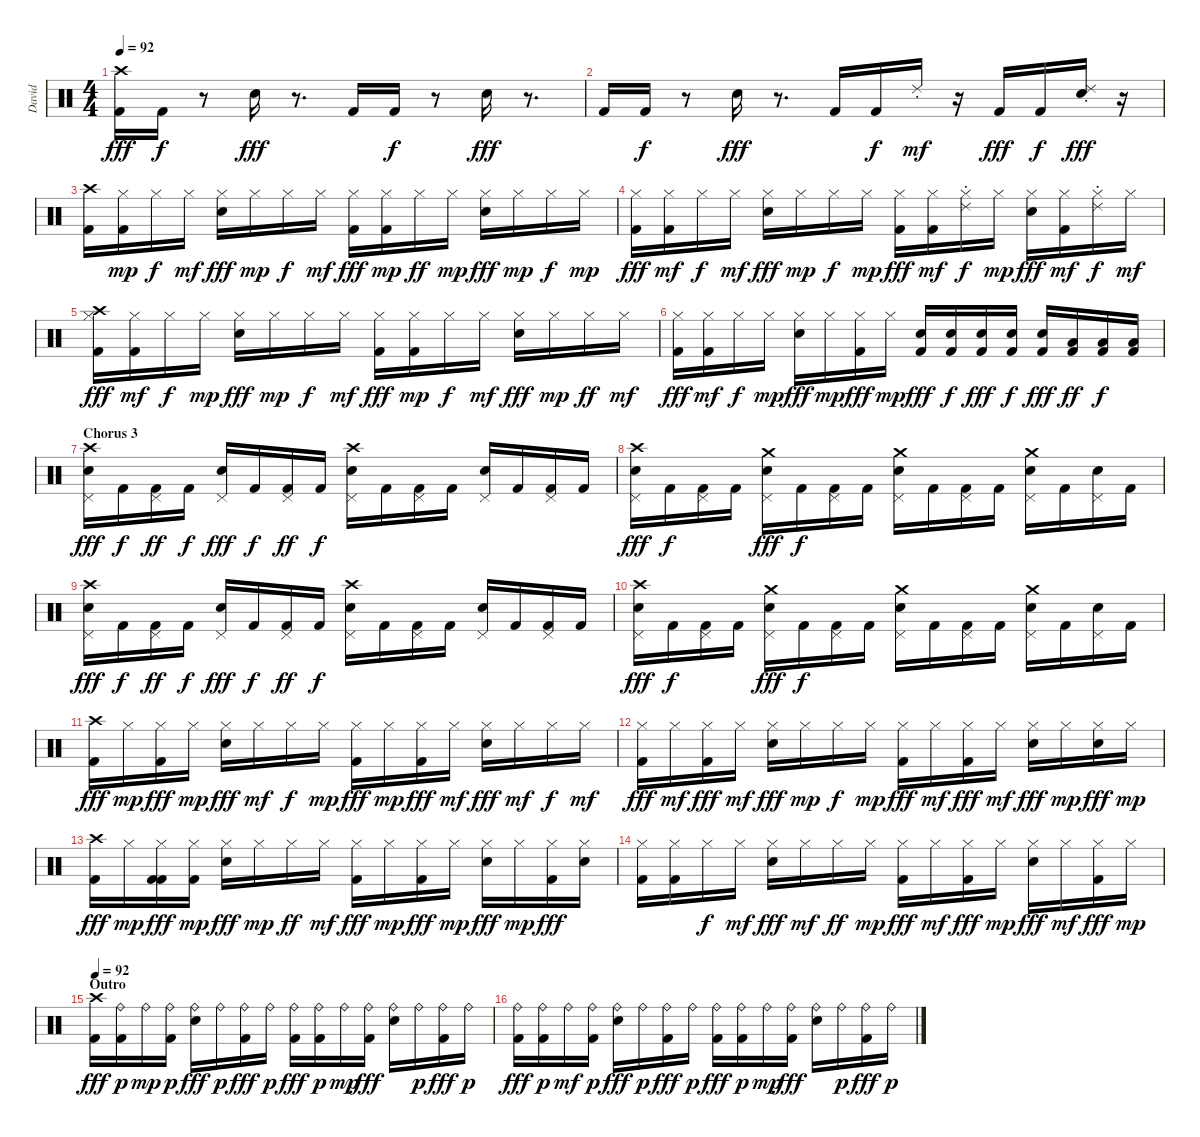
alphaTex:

\track ("David" "David") {instrument percussion}
\staff {score}
\articulation defaults
\ts (4 4)
\tempo 92
\clef neutral
\ks c
("Crash high (hit)" "Kick (hit) 2").16{dy fff} "Kick (hit) 2".16{dy f} r.8 "Electric Snare (hit)".16{dy fff} r.8{d} "Kick (hit) 2".16 "Kick (hit) 2".16{dy f} r.8 "Electric Snare (hit)".16{dy fff} r.8{d} |
"Kick (hit) 2".16 "Kick (hit) 2".16{dy f} r.8 "Electric Snare (hit)".16{dy fff} r.8{d} "Kick (hit) 2".16 "Kick (hit) 2".16{dy f} "Ride (choke) 2".16{dy mf} r.16 "Kick (hit) 2".16{dy fff} "Kick (hit) 2".16{dy f} ("Ride (choke) 2" "Electric Snare (hit)").16{dy fff} r.16 |
("Crash high (hit)" "Kick (hit) 2").16 ("Hi-Hat (closed)" "Kick (hit) 2").16{dy mp} "Hi-Hat (closed)".16{dy f} "Hi-Hat (closed)".16{dy mf} ("Hi-Hat (closed)" "Electric Snare (hit)").16{dy fff} "Hi-Hat (closed)".16{dy mp} "Hi-Hat (closed)".16{dy f} "Hi-Hat (closed)".16{dy mf} ("Hi-Hat (closed)" "Kick (hit) 2").16{dy fff} ("Hi-Hat (closed)" "Kick (hit) 2").16{dy mp} "Hi-Hat (closed)".16{dy ff} "Hi-Hat (closed)".16{dy mp} ("Hi-Hat (closed)" "Electric Snare (hit)").16{dy fff} "Hi-Hat (closed)".16{dy mp} "Hi-Hat (closed)".16{dy f} "Hi-Hat (closed)".16{dy mp} |
("Hi-Hat (closed)" "Kick (hit) 2").16{dy fff} ("Hi-Hat (closed)" "Kick (hit) 2").16{dy mf} "Hi-Hat (closed)".16{dy f} "Hi-Hat (closed)".16{dy mf} ("Hi-Hat (closed)" "Electric Snare (hit)").16{dy fff} "Hi-Hat (closed)".16{dy mp} "Hi-Hat (closed)".16{dy f} "Hi-Hat (closed)".16{dy mp} ("Hi-Hat (closed)" "Kick (hit) 2").16{dy fff} ("Hi-Hat (closed)" "Kick (hit) 2").16{dy mf} ("Ride (choke) 2" "Hi-Hat (closed)").16{dy f} "Hi-Hat (closed)".16{dy mp} ("Hi-Hat (closed)" "Electric Snare (hit)").16{dy fff} ("Hi-Hat (closed)" "Kick (hit) 2").16{dy mf} ("Ride (choke) 2" "Hi-Hat (closed)").16{dy f} "Hi-Hat (closed)".16{dy mf} |
("Hi-Hat (closed)" "Crash high (hit)" "Kick (hit) 2").16{dy fff} ("Hi-Hat (closed)" "Kick (hit) 2").16{dy mf} "Hi-Hat (closed)".16{dy f} "Hi-Hat (closed)".16{dy mp} ("Hi-Hat (closed)" "Electric Snare (hit)").16{dy fff} "Hi-Hat (closed)".16{dy mp} "Hi-Hat (closed)".16{dy f} "Hi-Hat (closed)".16{dy mf} ("Hi-Hat (closed)" "Kick (hit) 2").16{dy fff} ("Hi-Hat (closed)" "Kick (hit) 2").16{dy mp} "Hi-Hat (closed)".16{dy f} "Hi-Hat (closed)".16{dy mf} ("Hi-Hat (closed)" "Electric Snare (hit)").16{dy fff} "Hi-Hat (closed)".16{dy mp} "Hi-Hat (closed)".16{dy ff} "Hi-Hat (closed)".16{dy mf} |
("Hi-Hat (closed)" "Kick (hit) 2").16{dy fff} ("Hi-Hat (closed)" "Kick (hit) 2").16{dy mf} "Hi-Hat (closed)".16{dy f} "Hi-Hat (closed)".16{dy mp} ("Hi-Hat (closed)" "Electric Snare (hit)").16{dy fff} "Hi-Hat (closed)".16{dy mp} ("Hi-Hat (closed)" "Kick (hit) 2").16{dy fff} "Hi-Hat (closed)".16{dy mp} ("Electric Snare (hit)" "Kick (hit) 2").16{dy fff} ("Electric Snare (hit)" "Kick (hit) 2").16{dy f} ("Electric Snare (hit)" "Kick (hit) 2").16{dy fff} ("Electric Snare (hit)" "Kick (hit) 2").16{dy f} ("Electric Snare (hit)" "Kick (hit) 2").16{dy fff} ("Low Tom (hit)" "Kick (hit) 2").16{dy ff} ("Low Tom (hit)" "Kick (hit) 2").16{dy f} ("Low Floor Tom (hit)" "Kick (hit) 2").16 |
\section ("" "Chorus 3")
("Pedal Hi-Hat (hit)" "Crash high (hit)" "Electric Snare (hit)").16{dy fff} "Kick (hit) 2".16{dy f} ("Pedal Hi-Hat (hit)" "Kick (hit) 2").16{dy ff} "Kick (hit) 2".16{dy f} ("Pedal Hi-Hat (hit)" "Electric Snare (hit)").16{dy fff} "Kick (hit) 2".16{dy f} ("Pedal Hi-Hat (hit)" "Kick (hit) 2").16{dy ff} "Kick (hit) 2".16{dy f} ("Pedal Hi-Hat (hit)" "Crash high (hit)" "Electric Snare (hit)").16 "Kick (hit) 2".16 ("Pedal Hi-Hat (hit)" "Kick (hit) 2").16 "Kick (hit) 2".16 ("Pedal Hi-Hat (hit)" "Electric Snare (hit)").16 "Kick (hit) 2".16 ("Pedal Hi-Hat (hit)" "Kick (hit) 2").16 "Kick (hit) 2".16 |
("Pedal Hi-Hat (hit)" "Crash high (hit)" "Electric Snare (hit)").16{dy fff} "Kick (hit) 2".16{dy f} ("Pedal Hi-Hat (hit)" "Kick (hit) 2").16 "Kick (hit) 2".16 ("Pedal Hi-Hat (hit)" "Crash medium (hit)" "Electric Snare (hit)").16{dy fff} "Kick (hit) 2".16{dy f} ("Pedal Hi-Hat (hit)" "Kick (hit) 2").16 "Kick (hit) 2".16 ("Pedal Hi-Hat (hit)" "Crash medium (hit)" "Electric Snare (hit)").16 "Kick (hit) 2".16 ("Pedal Hi-Hat (hit)" "Kick (hit) 2").16 "Kick (hit) 2".16 ("Pedal Hi-Hat (hit)" "Crash medium (hit)" "Electric Snare (hit)").16 "Kick (hit) 2".16 ("Pedal Hi-Hat (hit)" "Electric Snare (hit)").16 "Kick (hit) 2".16 |
("Pedal Hi-Hat (hit)" "Crash high (hit)" "Electric Snare (hit)").16{dy fff} "Kick (hit) 2".16{dy f} ("Pedal Hi-Hat (hit)" "Kick (hit) 2").16{dy ff} "Kick (hit) 2".16{dy f} ("Pedal Hi-Hat (hit)" "Electric Snare (hit)").16{dy fff} "Kick (hit) 2".16{dy f} ("Pedal Hi-Hat (hit)" "Kick (hit) 2").16{dy ff} "Kick (hit) 2".16{dy f} ("Pedal Hi-Hat (hit)" "Crash high (hit)" "Electric Snare (hit)").16 "Kick (hit) 2".16 ("Pedal Hi-Hat (hit)" "Kick (hit) 2").16 "Kick (hit) 2".16 ("Pedal Hi-Hat (hit)" "Electric Snare (hit)").16 "Kick (hit) 2".16 ("Pedal Hi-Hat (hit)" "Kick (hit) 2").16 "Kick (hit) 2".16 |
("Pedal Hi-Hat (hit)" "Crash high (hit)" "Electric Snare (hit)").16{dy fff} "Kick (hit) 2".16{dy f} ("Pedal Hi-Hat (hit)" "Kick (hit) 2").16 "Kick (hit) 2".16 ("Pedal Hi-Hat (hit)" "Crash medium (hit)" "Electric Snare (hit)").16{dy fff} "Kick (hit) 2".16{dy f} ("Pedal Hi-Hat (hit)" "Kick (hit) 2").16 "Kick (hit) 2".16 ("Pedal Hi-Hat (hit)" "Crash medium (hit)" "Electric Snare (hit)").16 "Kick (hit) 2".16 ("Pedal Hi-Hat (hit)" "Kick (hit) 2").16 "Kick (hit) 2".16 ("Pedal Hi-Hat (hit)" "Crash medium (hit)" "Electric Snare (hit)").16 "Kick (hit) 2".16 ("Pedal Hi-Hat (hit)" "Electric Snare (hit)").16 "Kick (hit) 2".16 |
("Crash high (hit)" "Kick (hit) 2").16{dy fff} "Hi-Hat (closed)".16{dy mp} ("Hi-Hat (closed)" "Kick (hit) 2").16{dy fff} "Hi-Hat (closed)".16{dy mp} ("Hi-Hat (closed)" "Electric Snare (hit)").16{dy fff} "Hi-Hat (closed)".16{dy mf} "Hi-Hat (closed)".16{dy f} "Hi-Hat (closed)".16{dy mp} ("Hi-Hat (closed)" "Kick (hit) 2").16{dy fff} "Hi-Hat (closed)".16{dy mp} ("Hi-Hat (closed)" "Kick (hit) 2").16{dy fff} "Hi-Hat (closed)".16{dy mf} ("Hi-Hat (closed)" "Electric Snare (hit)").16{dy fff} "Hi-Hat (closed)".16{dy mf} "Hi-Hat (closed)".16{dy f} "Hi-Hat (closed)".16{dy mf} |
("Hi-Hat (closed)" "Kick (hit) 2").16{dy fff} "Hi-Hat (closed)".16{dy mf} ("Hi-Hat (closed)" "Kick (hit) 2").16{dy fff} "Hi-Hat (closed)".16{dy mf} ("Hi-Hat (closed)" "Electric Snare (hit)").16{dy fff} "Hi-Hat (closed)".16{dy mp} "Hi-Hat (closed)".16{dy f} "Hi-Hat (closed)".16{dy mp} ("Hi-Hat (closed)" "Kick (hit) 2").16{dy fff} "Hi-Hat (closed)".16{dy mf} ("Hi-Hat (closed)" "Kick (hit) 2").16{dy fff} "Hi-Hat (closed)".16{dy mf} ("Hi-Hat (closed)" "Electric Snare (hit)").16{dy fff} "Hi-Hat (closed)".16{dy mp} ("Hi-Hat (closed)" "Electric Snare (hit)").16{dy fff} "Hi-Hat (closed)".16{dy mp} |
("Crash high (hit)" "Kick (hit) 2").16{dy fff} "Hi-Hat (closed)".16{dy mp} ("Hi-Hat (closed)" "Kick (hit) 2" "Kick (hit) 2").16{dy fff} ("Hi-Hat (closed)" "Kick (hit) 2").16{dy mp} ("Hi-Hat (closed)" "Electric Snare (hit)").16{dy fff} "Hi-Hat (closed)".16{dy mp} "Hi-Hat (closed)".16{dy ff} "Hi-Hat (closed)".16{dy mf} ("Hi-Hat (closed)" "Kick (hit) 2").16{dy fff} "Hi-Hat (closed)".16{dy mp} ("Hi-Hat (closed)" "Kick (hit) 2").16{dy fff} "Hi-Hat (closed)".16{dy mp} ("Hi-Hat (closed)" "Electric Snare (hit)").16{dy fff} "Hi-Hat (closed)".16{dy mp} ("Hi-Hat (closed)" "Kick (hit) 2").16{dy fff} ("Hi-Hat (closed)" "Electric Snare (hit)").16 |
("Hi-Hat (closed)" "Kick (hit) 2").16 ("Hi-Hat (closed)" "Kick (hit) 2").16 "Hi-Hat (closed)".16{dy f} "Hi-Hat (closed)".16{dy mf} ("Hi-Hat (closed)" "Electric Snare (hit)").16{dy fff} "Hi-Hat (closed)".16{dy mf} "Hi-Hat (closed)".16{dy ff} "Hi-Hat (closed)".16{dy mp} ("Hi-Hat (closed)" "Kick (hit) 2").16{dy fff} "Hi-Hat (closed)".16{dy mf} ("Hi-Hat (closed)" "Kick (hit) 2").16{dy fff} "Hi-Hat (closed)".16{dy mp} ("Hi-Hat (closed)" "Electric Snare (hit)").16{dy fff} "Hi-Hat (closed)".16{dy mf} ("Hi-Hat (closed)" "Kick (hit) 2").16{dy fff} "Hi-Hat (closed)".16{dy mp} |
\section ("" "Outro")
\tempo 92
("Crash high (hit)" "Kick (hit) 2").16{dy fff} ("Ride (bell)" "Kick (hit) 2").16{dy p} "Ride (bell)".16{dy mp} ("Ride (bell)" "Kick (hit) 2").16{dy p} ("Ride (bell)" "Electric Snare (hit)").16{dy fff} "Ride (bell)".16{dy p} ("Ride (bell)" "Kick (hit) 2").16{dy fff} "Ride (bell)".16{dy p} ("Ride (bell)" "Kick (hit) 2").16{dy fff} ("Ride (bell)" "Kick (hit) 2").16{dy p} "Ride (bell)".16{dy mp} ("Ride (bell)" "Kick (hit) 2").16{dy fff} ("Ride (bell)" "Electric Snare (hit)").16 "Ride (bell)".16{dy p} ("Ride (bell)" "Kick (hit) 2").16{dy fff} "Ride (bell)".16{dy p} |
("Ride (bell)" "Kick (hit) 2").16{dy fff} ("Ride (bell)" "Kick (hit) 2").16{dy p} "Ride (bell)".16{dy mf} ("Ride (bell)" "Kick (hit) 2").16{dy p} ("Ride (bell)" "Electric Snare (hit)").16{dy fff} "Ride (bell)".16{dy p} ("Ride (bell)" "Kick (hit) 2").16{dy fff} "Ride (bell)".16{dy p} ("Ride (bell)" "Kick (hit) 2").16{dy fff} ("Ride (bell)" "Kick (hit) 2").16{dy p} "Ride (bell)".16{dy mp} ("Ride (bell)" "Kick (hit) 2").16{dy fff} ("Ride (bell)" "Electric Snare (hit)").16 "Ride (bell)".16{dy p} ("Ride (bell)" "Kick (hit) 2").16{dy fff} "Ride (bell)".16{dy p}
